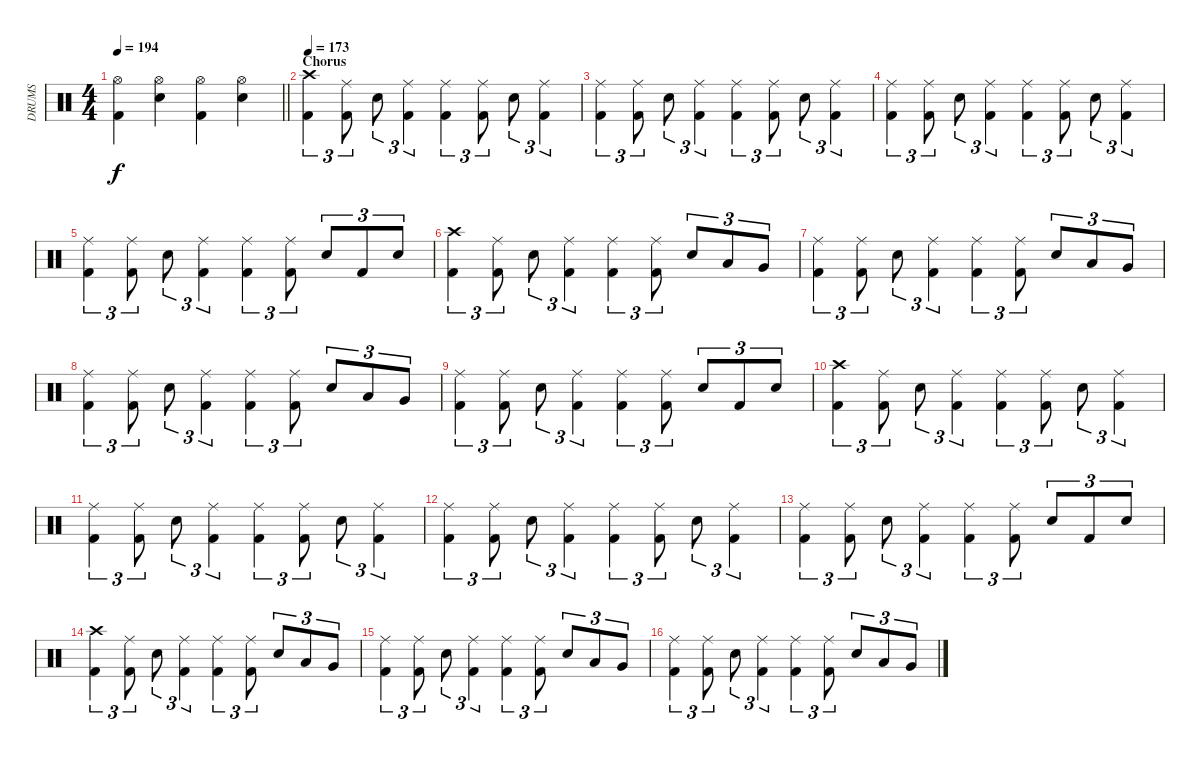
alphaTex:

\track ("DRUMS" "DRUMS") {instrument percussion}
\staff {score}
\articulation defaults
\ts (4 4)
\tempo 194
\clef neutral
\barLineRight lightlight
\ks c
("Hi-Hat (open)" "Kick (hit) 2").4{dy f} ("Hi-Hat (open)" "Snare (hit) 2").4 ("Hi-Hat (open)" "Kick (hit) 2").4 ("Hi-Hat (open)" "Snare (hit) 2").4 |
\section ("" "Chorus")
\tempo 173
("Crash high (hit)" "Kick (hit) 2").4{tu (3 2)} ("Ride (middle)" "Kick (hit) 2").8{tu (3 2)} "Snare (hit) 2".8{tu (3 2)} ("Ride (middle)" "Kick (hit) 2").4{tu (3 2)} ("Ride (middle)" "Kick (hit) 2").4{tu (3 2)} ("Ride (middle)" "Kick (hit) 2").8{tu (3 2)} "Snare (hit) 2".8{tu (3 2)} ("Ride (middle)" "Kick (hit) 2").4{tu (3 2)} |
("Ride (middle)" "Kick (hit) 2").4{tu (3 2)} ("Ride (middle)" "Kick (hit) 2").8{tu (3 2)} "Snare (hit) 2".8{tu (3 2)} ("Ride (middle)" "Kick (hit) 2").4{tu (3 2)} ("Ride (middle)" "Kick (hit) 2").4{tu (3 2)} ("Ride (middle)" "Kick (hit) 2").8{tu (3 2)} "Snare (hit) 2".8{tu (3 2)} ("Ride (middle)" "Kick (hit) 2").4{tu (3 2)} |
("Ride (middle)" "Kick (hit) 2").4{tu (3 2)} ("Ride (middle)" "Kick (hit) 2").8{tu (3 2)} "Snare (hit) 2".8{tu (3 2)} ("Ride (middle)" "Kick (hit) 2").4{tu (3 2)} ("Ride (middle)" "Kick (hit) 2").4{tu (3 2)} ("Ride (middle)" "Kick (hit) 2").8{tu (3 2)} "Snare (hit) 2".8{tu (3 2)} ("Ride (middle)" "Kick (hit) 2").4{tu (3 2)} |
("Ride (middle)" "Kick (hit) 2").4{tu (3 2)} ("Ride (middle)" "Kick (hit) 2").8{tu (3 2)} "Snare (hit) 2".8{tu (3 2)} ("Ride (middle)" "Kick (hit) 2").4{tu (3 2)} ("Ride (middle)" "Kick (hit) 2").4{tu (3 2)} ("Ride (middle)" "Kick (hit) 2").8{tu (3 2)} "Snare (hit) 2".8{tu (3 2)} "Kick (hit) 2".8{tu (3 2)} "Snare (hit) 2".8{tu (3 2)} |
("Crash high (hit)" "Kick (hit) 2").4{tu (3 2)} ("Ride (middle)" "Kick (hit) 2").8{tu (3 2)} "Snare (hit) 2".8{tu (3 2)} ("Ride (middle)" "Kick (hit) 2").4{tu (3 2)} ("Ride (middle)" "Kick (hit) 2").4{tu (3 2)} ("Ride (middle)" "Kick (hit) 2").8{tu (3 2)} "Snare (hit) 2".8{tu (3 2)} "Low Floor Tom (hit)".8{tu (3 2)} "Very Low Tom (hit)".8{tu (3 2)} |
("Ride (middle)" "Kick (hit) 2").4{tu (3 2)} ("Ride (middle)" "Kick (hit) 2").8{tu (3 2)} "Snare (hit) 2".8{tu (3 2)} ("Ride (middle)" "Kick (hit) 2").4{tu (3 2)} ("Ride (middle)" "Kick (hit) 2").4{tu (3 2)} ("Ride (middle)" "Kick (hit) 2").8{tu (3 2)} "Snare (hit) 2".8{tu (3 2)} "Low Floor Tom (hit)".8{tu (3 2)} "Very Low Tom (hit)".8{tu (3 2)} |
("Ride (middle)" "Kick (hit) 2").4{tu (3 2)} ("Ride (middle)" "Kick (hit) 2").8{tu (3 2)} "Snare (hit) 2".8{tu (3 2)} ("Ride (middle)" "Kick (hit) 2").4{tu (3 2)} ("Ride (middle)" "Kick (hit) 2").4{tu (3 2)} ("Ride (middle)" "Kick (hit) 2").8{tu (3 2)} "Snare (hit) 2".8{tu (3 2)} "Low Floor Tom (hit)".8{tu (3 2)} "Very Low Tom (hit)".8{tu (3 2)} |
("Ride (middle)" "Kick (hit) 2").4{tu (3 2)} ("Ride (middle)" "Kick (hit) 2").8{tu (3 2)} "Snare (hit) 2".8{tu (3 2)} ("Ride (middle)" "Kick (hit) 2").4{tu (3 2)} ("Ride (middle)" "Kick (hit) 2").4{tu (3 2)} ("Ride (middle)" "Kick (hit) 2").8{tu (3 2)} "Snare (hit) 2".8{tu (3 2)} "Kick (hit) 2".8{tu (3 2)} "Snare (hit) 2".8{tu (3 2)} |
("Crash high (hit)" "Kick (hit) 2").4{tu (3 2)} ("Ride (middle)" "Kick (hit) 2").8{tu (3 2)} "Snare (hit) 2".8{tu (3 2)} ("Ride (middle)" "Kick (hit) 2").4{tu (3 2)} ("Ride (middle)" "Kick (hit) 2").4{tu (3 2)} ("Ride (middle)" "Kick (hit) 2").8{tu (3 2)} "Snare (hit) 2".8{tu (3 2)} ("Ride (middle)" "Kick (hit) 2").4{tu (3 2)} |
("Ride (middle)" "Kick (hit) 2").4{tu (3 2)} ("Ride (middle)" "Kick (hit) 2").8{tu (3 2)} "Snare (hit) 2".8{tu (3 2)} ("Ride (middle)" "Kick (hit) 2").4{tu (3 2)} ("Ride (middle)" "Kick (hit) 2").4{tu (3 2)} ("Ride (middle)" "Kick (hit) 2").8{tu (3 2)} "Snare (hit) 2".8{tu (3 2)} ("Ride (middle)" "Kick (hit) 2").4{tu (3 2)} |
("Ride (middle)" "Kick (hit) 2").4{tu (3 2)} ("Ride (middle)" "Kick (hit) 2").8{tu (3 2)} "Snare (hit) 2".8{tu (3 2)} ("Ride (middle)" "Kick (hit) 2").4{tu (3 2)} ("Ride (middle)" "Kick (hit) 2").4{tu (3 2)} ("Ride (middle)" "Kick (hit) 2").8{tu (3 2)} "Snare (hit) 2".8{tu (3 2)} ("Ride (middle)" "Kick (hit) 2").4{tu (3 2)} |
("Ride (middle)" "Kick (hit) 2").4{tu (3 2)} ("Ride (middle)" "Kick (hit) 2").8{tu (3 2)} "Snare (hit) 2".8{tu (3 2)} ("Ride (middle)" "Kick (hit) 2").4{tu (3 2)} ("Ride (middle)" "Kick (hit) 2").4{tu (3 2)} ("Ride (middle)" "Kick (hit) 2").8{tu (3 2)} "Snare (hit) 2".8{tu (3 2)} "Kick (hit) 2".8{tu (3 2)} "Snare (hit) 2".8{tu (3 2)} |
("Crash high (hit)" "Kick (hit) 2").4{tu (3 2)} ("Ride (middle)" "Kick (hit) 2").8{tu (3 2)} "Snare (hit) 2".8{tu (3 2)} ("Ride (middle)" "Kick (hit) 2").4{tu (3 2)} ("Ride (middle)" "Kick (hit) 2").4{tu (3 2)} ("Ride (middle)" "Kick (hit) 2").8{tu (3 2)} "Snare (hit) 2".8{tu (3 2)} "Low Floor Tom (hit)".8{tu (3 2)} "Very Low Tom (hit)".8{tu (3 2)} |
("Ride (middle)" "Kick (hit) 2").4{tu (3 2)} ("Ride (middle)" "Kick (hit) 2").8{tu (3 2)} "Snare (hit) 2".8{tu (3 2)} ("Ride (middle)" "Kick (hit) 2").4{tu (3 2)} ("Ride (middle)" "Kick (hit) 2").4{tu (3 2)} ("Ride (middle)" "Kick (hit) 2").8{tu (3 2)} "Snare (hit) 2".8{tu (3 2)} "Low Floor Tom (hit)".8{tu (3 2)} "Very Low Tom (hit)".8{tu (3 2)} |
("Ride (middle)" "Kick (hit) 2").4{tu (3 2)} ("Ride (middle)" "Kick (hit) 2").8{tu (3 2)} "Snare (hit) 2".8{tu (3 2)} ("Ride (middle)" "Kick (hit) 2").4{tu (3 2)} ("Ride (middle)" "Kick (hit) 2").4{tu (3 2)} ("Ride (middle)" "Kick (hit) 2").8{tu (3 2)} "Snare (hit) 2".8{tu (3 2)} "Low Floor Tom (hit)".8{tu (3 2)} "Very Low Tom (hit)".8{tu (3 2)}
